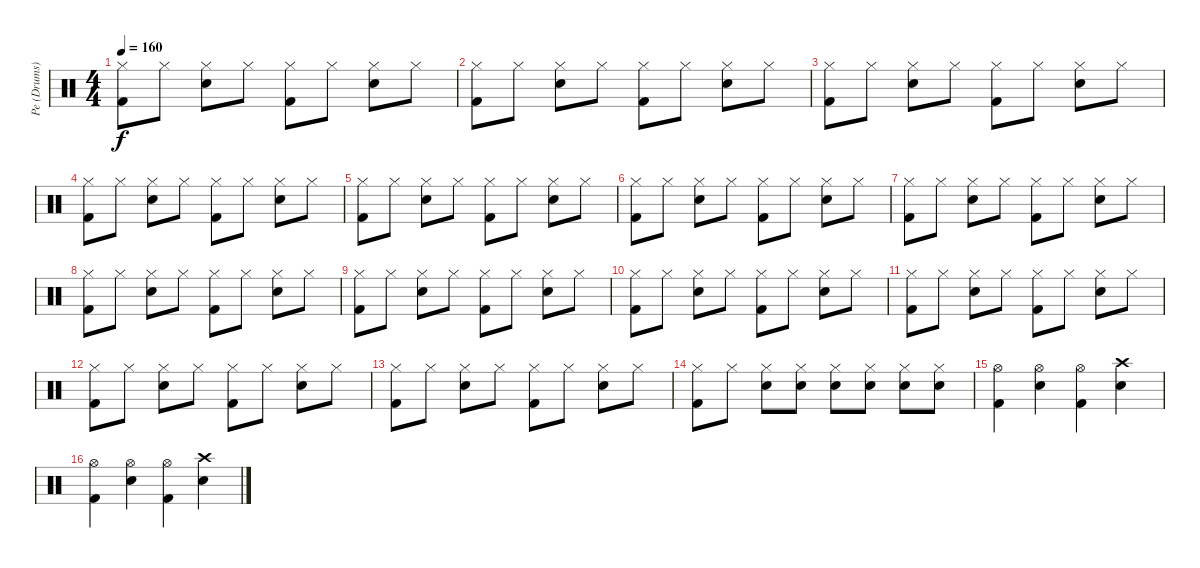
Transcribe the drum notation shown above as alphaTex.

\track ("Pe (Drums)" "Pe (Drums)") {instrument percussion}
\staff {score}
\articulation defaults
\ts (4 4)
\tempo 160
\clef neutral
\ks c
("Hi-Hat (closed)" "Kick (hit) 2").8{dy f} "Hi-Hat (closed)".8 ("Hi-Hat (closed)" "Snare (hit) 2").8 "Hi-Hat (closed)".8 ("Hi-Hat (closed)" "Kick (hit) 2").8 "Hi-Hat (closed)".8 ("Hi-Hat (closed)" "Snare (hit) 2").8 "Hi-Hat (closed)".8 |
("Hi-Hat (closed)" "Kick (hit) 2").8 "Hi-Hat (closed)".8 ("Hi-Hat (closed)" "Snare (hit) 2").8 "Hi-Hat (closed)".8 ("Hi-Hat (closed)" "Kick (hit) 2").8 "Hi-Hat (closed)".8 ("Hi-Hat (closed)" "Snare (hit) 2").8 "Hi-Hat (closed)".8 |
("Hi-Hat (closed)" "Kick (hit) 2").8 "Hi-Hat (closed)".8 ("Hi-Hat (closed)" "Snare (hit) 2").8 "Hi-Hat (closed)".8 ("Hi-Hat (closed)" "Kick (hit) 2").8 "Hi-Hat (closed)".8 ("Hi-Hat (closed)" "Snare (hit) 2").8 "Hi-Hat (closed)".8 |
("Hi-Hat (closed)" "Kick (hit) 2").8 "Hi-Hat (closed)".8 ("Hi-Hat (closed)" "Snare (hit) 2").8 "Hi-Hat (closed)".8 ("Hi-Hat (closed)" "Kick (hit) 2").8 "Hi-Hat (closed)".8 ("Hi-Hat (closed)" "Snare (hit) 2").8 "Hi-Hat (closed)".8 |
("Hi-Hat (closed)" "Kick (hit) 2").8 "Hi-Hat (closed)".8 ("Hi-Hat (closed)" "Snare (hit) 2").8 "Hi-Hat (closed)".8 ("Hi-Hat (closed)" "Kick (hit) 2").8 "Hi-Hat (closed)".8 ("Hi-Hat (closed)" "Snare (hit) 2").8 "Hi-Hat (closed)".8 |
("Hi-Hat (closed)" "Kick (hit) 2").8 "Hi-Hat (closed)".8 ("Hi-Hat (closed)" "Snare (hit) 2").8 "Hi-Hat (closed)".8 ("Hi-Hat (closed)" "Kick (hit) 2").8 "Hi-Hat (closed)".8 ("Hi-Hat (closed)" "Snare (hit) 2").8 "Hi-Hat (closed)".8 |
("Hi-Hat (closed)" "Kick (hit) 2").8 "Hi-Hat (closed)".8 ("Hi-Hat (closed)" "Snare (hit) 2").8 "Hi-Hat (closed)".8 ("Hi-Hat (closed)" "Kick (hit) 2").8 "Hi-Hat (closed)".8 ("Hi-Hat (closed)" "Snare (hit) 2").8 "Hi-Hat (closed)".8 |
("Hi-Hat (closed)" "Kick (hit) 2").8 "Hi-Hat (closed)".8 ("Hi-Hat (closed)" "Snare (hit) 2").8 "Hi-Hat (closed)".8 ("Hi-Hat (closed)" "Kick (hit) 2").8 "Hi-Hat (closed)".8 ("Hi-Hat (closed)" "Snare (hit) 2").8 "Hi-Hat (closed)".8 |
("Hi-Hat (closed)" "Kick (hit) 2").8 "Hi-Hat (closed)".8 ("Hi-Hat (closed)" "Snare (hit) 2").8 "Hi-Hat (closed)".8 ("Hi-Hat (closed)" "Kick (hit) 2").8 "Hi-Hat (closed)".8 ("Hi-Hat (closed)" "Snare (hit) 2").8 "Hi-Hat (closed)".8 |
("Hi-Hat (closed)" "Kick (hit) 2").8 "Hi-Hat (closed)".8 ("Hi-Hat (closed)" "Snare (hit) 2").8 "Hi-Hat (closed)".8 ("Hi-Hat (closed)" "Kick (hit) 2").8 "Hi-Hat (closed)".8 ("Hi-Hat (closed)" "Snare (hit) 2").8 "Hi-Hat (closed)".8 |
("Hi-Hat (closed)" "Kick (hit) 2").8 "Hi-Hat (closed)".8 ("Hi-Hat (closed)" "Snare (hit) 2").8 "Hi-Hat (closed)".8 ("Hi-Hat (closed)" "Kick (hit) 2").8 "Hi-Hat (closed)".8 ("Hi-Hat (closed)" "Snare (hit) 2").8 "Hi-Hat (closed)".8 |
("Hi-Hat (closed)" "Kick (hit) 2").8 "Hi-Hat (closed)".8 ("Hi-Hat (closed)" "Snare (hit) 2").8 "Hi-Hat (closed)".8 ("Hi-Hat (closed)" "Kick (hit) 2").8 "Hi-Hat (closed)".8 ("Hi-Hat (closed)" "Snare (hit) 2").8 "Hi-Hat (closed)".8 |
("Hi-Hat (closed)" "Kick (hit) 2").8 "Hi-Hat (closed)".8 ("Hi-Hat (closed)" "Snare (hit) 2").8 "Hi-Hat (closed)".8 ("Hi-Hat (closed)" "Kick (hit) 2").8 "Hi-Hat (closed)".8 ("Hi-Hat (closed)" "Snare (hit) 2").8 "Hi-Hat (closed)".8 |
("Hi-Hat (closed)" "Kick (hit) 2").8 "Hi-Hat (closed)".8 ("Hi-Hat (closed)" "Snare (hit) 2").8 ("Hi-Hat (closed)" "Snare (hit) 2").8 ("Hi-Hat (closed)" "Snare (hit) 2").8 ("Hi-Hat (closed)" "Snare (hit) 2").8 ("Hi-Hat (closed)" "Snare (hit) 2").8 ("Hi-Hat (closed)" "Snare (hit) 2").8 |
("Hi-Hat (open)" "Kick (hit) 2").4 ("Hi-Hat (open)" "Snare (hit) 2").4 ("Hi-Hat (open)" "Kick (hit) 2").4 ("Crash high (hit)" "Snare (hit) 2").4 |
("Hi-Hat (open)" "Kick (hit) 2").4 ("Hi-Hat (open)" "Snare (hit) 2").4 ("Hi-Hat (open)" "Kick (hit) 2").4 ("Crash high (hit)" "Snare (hit) 2").4
